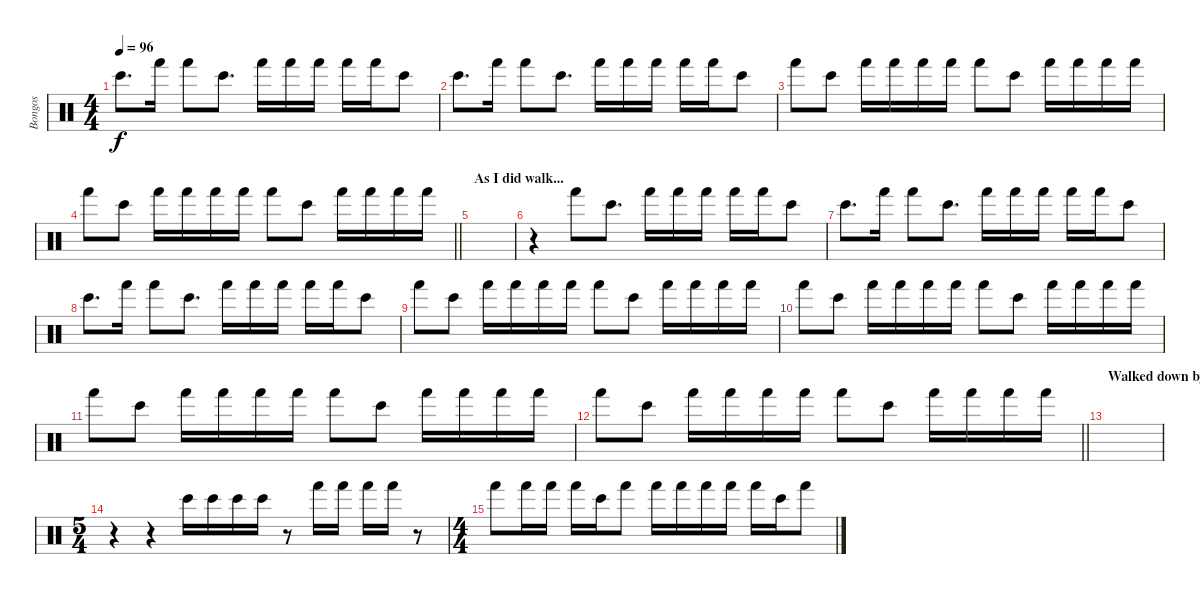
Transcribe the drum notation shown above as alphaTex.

\track ("Bongos" "Bongos") {instrument percussion}
\staff {score}
\articulation defaults
\ts (4 4)
\tempo 96
\clef neutral
\ks c "Bongo High (hit)".8{d dy f} "Hand (hit)".16 "Hand (hit)".8 "Bongo High (hit)".8{d} "Hand (hit)".16 "Hand (hit)".16 "Hand (hit)".16 "Hand (hit)".16 "Hand (hit)".16 "Bongo High (hit)".8
|
"Bongo High (hit)".8{d} "Hand (hit)".16 "Hand (hit)".8 "Bongo High (hit)".8{d} "Hand (hit)".16 "Hand (hit)".16 "Hand (hit)".16 "Hand (hit)".16 "Hand (hit)".16 "Bongo High (hit)".8 |
"Hand (hit)".8 "Bongo High (hit)".8 "Hand (hit)".16 "Hand (hit)".16 "Hand (hit)".16 "Hand (hit)".16 "Hand (hit)".8 "Bongo High (hit)".8 "Hand (hit)".16 "Hand (hit)".16 "Hand (hit)".16 "Hand (hit)".16 |
\barLineRight lightlight "Hand (hit)".8 "Bongo High (hit)".8 "Hand (hit)".16 "Hand (hit)".16 "Hand (hit)".16 "Hand (hit)".16 "Hand (hit)".8 "Bongo High (hit)".8 "Hand (hit)".16 "Hand (hit)".16 "Hand (hit)".16 "Hand (hit)".16
|
\section ("" "As I did walk...")
|
r.4 "Hand (hit)".8 "Bongo High (hit)".8{d} "Hand (hit)".16 "Hand (hit)".16 "Hand (hit)".16 "Hand (hit)".16 "Hand (hit)".16 "Bongo High (hit)".8 |
"Bongo High (hit)".8{d} "Hand (hit)".16 "Hand (hit)".8 "Bongo High (hit)".8{d} "Hand (hit)".16 "Hand (hit)".16 "Hand (hit)".16 "Hand (hit)".16 "Hand (hit)".16 "Bongo High (hit)".8 |
"Bongo High (hit)".8{d} "Hand (hit)".16 "Hand (hit)".8 "Bongo High (hit)".8{d} "Hand (hit)".16 "Hand (hit)".16 "Hand (hit)".16 "Hand (hit)".16 "Hand (hit)".16 "Bongo High (hit)".8 |
"Hand (hit)".8 "Bongo High (hit)".8 "Hand (hit)".16 "Hand (hit)".16 "Hand (hit)".16 "Hand (hit)".16 "Hand (hit)".8 "Bongo High (hit)".8 "Hand (hit)".16 "Hand (hit)".16 "Hand (hit)".16 "Hand (hit)".16 |
"Hand (hit)".8 "Bongo High (hit)".8 "Hand (hit)".16 "Hand (hit)".16 "Hand (hit)".16 "Hand (hit)".16 "Hand (hit)".8 "Bongo High (hit)".8 "Hand (hit)".16 "Hand (hit)".16 "Hand (hit)".16 "Hand (hit)".16 |
"Hand (hit)".8 "Bongo High (hit)".8 "Hand (hit)".16 "Hand (hit)".16 "Hand (hit)".16 "Hand (hit)".16 "Hand (hit)".8 "Bongo High (hit)".8 "Hand (hit)".16 "Hand (hit)".16 "Hand (hit)".16 "Hand (hit)".16 |
\barLineRight lightlight "Hand (hit)".8 "Bongo High (hit)".8 "Hand (hit)".16 "Hand (hit)".16 "Hand (hit)".16 "Hand (hit)".16 "Hand (hit)".8 "Bongo High (hit)".8 "Hand (hit)".16 "Hand (hit)".16 "Hand (hit)".16 "Hand (hit)".16
|
\section ("" "Walked down by the bathing pond...")
|
\ts (5 4)
r.4 r.4 "Bongo High (hit)".16 "Bongo High (hit)".16 "Bongo High (hit)".16 "Bongo High (hit)".16 r.8 "Hand (hit)".16 "Hand (hit)".16 "Hand (hit)".16 "Hand (hit)".16 r.8 |
\ts (4 4)
"Hand (hit)".8 "Hand (hit)".16 "Hand (hit)".16 "Hand (hit)".16 "Bongo High (hit)".16 "Hand (hit)".8 "Hand (hit)".16 "Hand (hit)".16 "Hand (hit)".16 "Hand (hit)".16 "Hand (hit)".16 "Bongo High (hit)".16 "Hand (hit)".8
